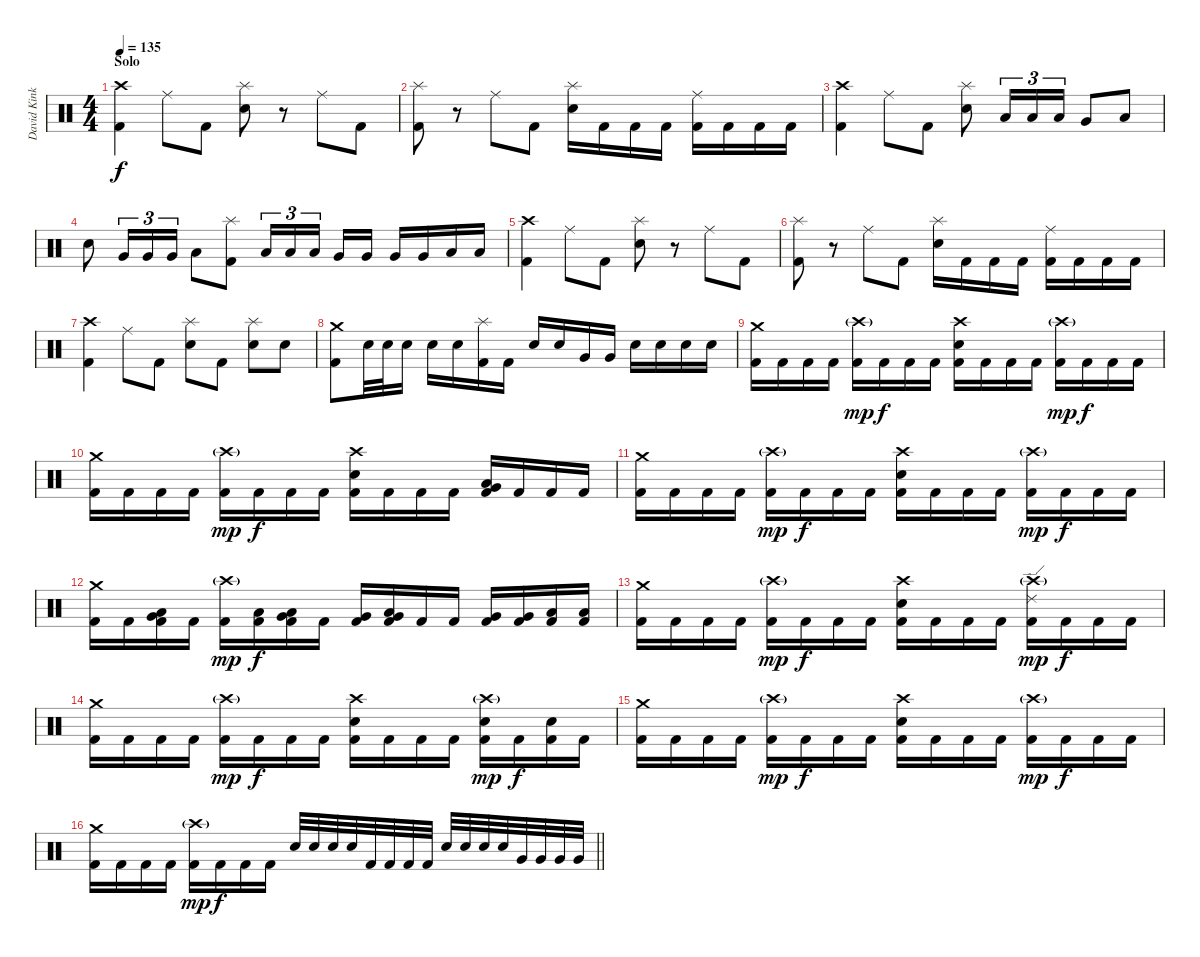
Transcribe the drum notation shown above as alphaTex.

\track ("David Kinkade" "David Kink") {instrument percussion}
\staff {score}
\articulation defaults
\ts (4 4)
\section ("" "Solo")
\tempo 135
\clef neutral
\ks c
("Crash high (hit)" "Kick (hit) 2").4{dy f} "Ride (middle)".8 "Kick (hit) 2".8 ("Splash (hit)" "Snare (hit) 2").8 r.8 "Ride (middle)".8 "Kick (hit) 2".8 |
("Splash (hit)" "Kick (hit) 2").8 r.8 "Ride (middle)".8 "Kick (hit) 2".8 ("Splash (hit)" "Snare (hit) 2").16 "Kick (hit) 2".16 "Kick (hit) 2".16 "Kick (hit) 2".16 ("Ride (middle)" "Kick (hit) 2").16 "Kick (hit) 2".16 "Kick (hit) 2".16 "Kick (hit) 2".16 |
("Crash high (hit)" "Kick (hit) 2").4 "Ride (middle)".8 "Kick (hit) 2".8 ("Splash (hit)" "Snare (hit) 2").8 "Low Tom (hit)".16{tu (3 2)} "Low Tom (hit)".16{tu (3 2)} "Low Tom (hit)".16{tu (3 2)} "Very Low Tom (hit)".8 "Low Floor Tom (hit)".8 |
"Snare (hit) 2".8 "Very Low Tom (hit)".16{tu (3 2)} "Very Low Tom (hit)".16{tu (3 2)} "Very Low Tom (hit)".16{tu (3 2)} "Low Floor Tom (hit)".8 ("Splash (hit)" "Kick (hit) 2").8 "Low Tom (hit)".16{tu (3 2)} "Low Tom (hit)".16{tu (3 2)} "Low Tom (hit)".16{tu (3 2) beam splitsecondary} "Very Low Tom (hit)".16 "Very Low Tom (hit)".16 "Very Low Tom (hit)".16 "Very Low Tom (hit)".16 "Low Floor Tom (hit)".16 "Low Floor Tom (hit)".16 |
("Crash high (hit)" "Kick (hit) 2").4 "Ride (middle)".8 "Kick (hit) 2".8 ("Splash (hit)" "Snare (hit) 2").8 r.8 "Ride (middle)".8 "Kick (hit) 2".8 |
("Splash (hit)" "Kick (hit) 2").8 r.8 "Ride (middle)".8 "Kick (hit) 2".8 ("Splash (hit)" "Snare (hit) 2").16 "Kick (hit) 2".16 "Kick (hit) 2".16 "Kick (hit) 2".16 ("Ride (middle)" "Kick (hit) 2").16 "Kick (hit) 2".16 "Kick (hit) 2".16 "Kick (hit) 2".16 |
("Crash high (hit)" "Kick (hit) 2").4 "Ride (middle)".8 "Kick (hit) 2".8 ("Splash (hit)" "Snare (hit) 2").8 "Kick (hit) 2".8 ("Splash (hit)" "Snare (hit) 2").8 "Snare (hit) 2".8 |
("Crash medium (hit)" "Kick (hit) 2").8 "Snare (hit) 2".32 "Snare (hit) 2".32 "Snare (hit) 2".16 "Snare (hit) 2".16 "Snare (hit) 2".16 ("Splash (hit)" "Kick (hit) 2").16 "Kick (hit) 2".16 "Snare (hit) 2".16 "Snare (hit) 2".16 "Very Low Tom (hit)".16 "Very Low Tom (hit)".16 "Snare (hit) 2".16 "Snare (hit) 2".16 "Snare (hit) 2".16 "Snare (hit) 2".16 |
("Crash medium (hit)" "Kick (hit) 2").16 "Kick (hit) 2".16 "Kick (hit) 2".16 "Kick (hit) 2".16 ("Crash high (hit)"{g} "Kick (hit) 2").16{dy mp} "Kick (hit) 2".16{dy f} "Kick (hit) 2".16 "Kick (hit) 2".16 ("Crash high (hit)" "Snare (hit) 2" "Kick (hit) 2").16 "Kick (hit) 2".16 "Kick (hit) 2".16 "Kick (hit) 2".16 ("Crash high (hit)"{g} "Kick (hit) 2").16{dy mp} "Kick (hit) 2".16{dy f} "Kick (hit) 2".16 "Kick (hit) 2".16 |
("Crash medium (hit)" "Kick (hit) 2").16 "Kick (hit) 2".16 "Kick (hit) 2".16 "Kick (hit) 2".16 ("Crash high (hit)"{g} "Kick (hit) 2").16{dy mp} "Kick (hit) 2".16{dy f} "Kick (hit) 2".16 "Kick (hit) 2".16 ("Crash high (hit)" "Snare (hit) 2" "Kick (hit) 2").16 "Kick (hit) 2".16 "Kick (hit) 2".16 "Kick (hit) 2".16 ("Very Low Tom (hit)" "Low Floor Tom (hit)" "Kick (hit) 2").16 "Kick (hit) 2".16 "Kick (hit) 2".16 "Kick (hit) 2".16 |
("Crash medium (hit)" "Kick (hit) 2").16 "Kick (hit) 2".16 "Kick (hit) 2".16 "Kick (hit) 2".16 ("Crash high (hit)"{g} "Kick (hit) 2").16{dy mp} "Kick (hit) 2".16{dy f} "Kick (hit) 2".16 "Kick (hit) 2".16 ("Crash high (hit)" "Snare (hit) 2" "Kick (hit) 2").16 "Kick (hit) 2".16 "Kick (hit) 2".16 "Kick (hit) 2".16 ("Crash high (hit)"{g} "Kick (hit) 2").16{dy mp} "Kick (hit) 2".16{dy f} "Kick (hit) 2".16 "Kick (hit) 2".16 |
("Crash medium (hit)" "Kick (hit) 2").16 "Kick (hit) 2".16 ("Low Tom (hit)" "Very Low Tom (hit)" "Kick (hit) 2").16 "Kick (hit) 2".16 ("Crash high (hit)"{g} "Kick (hit) 2").16{dy mp} ("Low Tom (hit)" "Kick (hit) 2").16{dy f} ("Very Low Tom (hit)" "Low Floor Tom (hit)" "Kick (hit) 2").16 "Kick (hit) 2".16 ("Very Low Tom (hit)" "Kick (hit) 2").16 ("Very Low Tom (hit)" "Low Floor Tom (hit)" "Kick (hit) 2").16 "Kick (hit) 2".16 "Kick (hit) 2".16 ("Very Low Tom (hit)" "Kick (hit) 2").16 ("Very Low Tom (hit)" "Kick (hit) 2").16 ("Low Floor Tom (hit)" "Kick (hit) 2").16 ("Low Floor Tom (hit)" "Kick (hit) 2").16 |
("Crash medium (hit)" "Kick (hit) 2").16 "Kick (hit) 2".16 "Kick (hit) 2".16 "Kick (hit) 2".16 ("Crash high (hit)"{g} "Kick (hit) 2").16{dy mp} "Kick (hit) 2".16{dy f} "Kick (hit) 2".16 "Kick (hit) 2".16 ("Crash high (hit)" "Snare (hit) 2" "Kick (hit) 2").16 "Kick (hit) 2".16 "Kick (hit) 2".16 "Kick (hit) 2".16 ("Crash high (hit)"{g} "Ride (edge) 2" "Kick (hit) 2").16{dy mp} "Kick (hit) 2".16{dy f} "Kick (hit) 2".16 "Kick (hit) 2".16 |
("Crash medium (hit)" "Kick (hit) 2").16 "Kick (hit) 2".16 "Kick (hit) 2".16 "Kick (hit) 2".16 ("Crash high (hit)"{g} "Kick (hit) 2").16{dy mp} "Kick (hit) 2".16{dy f} "Kick (hit) 2".16 "Kick (hit) 2".16 ("Crash high (hit)" "Snare (hit) 2" "Kick (hit) 2").16 "Kick (hit) 2".16 "Kick (hit) 2".16 "Kick (hit) 2".16 ("Crash high (hit)"{g} "Snare (hit) 2" "Kick (hit) 2").16{dy mp} "Kick (hit) 2".16{dy f} ("Snare (hit) 2" "Kick (hit) 2").16 "Kick (hit) 2".16 |
("Crash medium (hit)" "Kick (hit) 2").16 "Kick (hit) 2".16 "Kick (hit) 2".16 "Kick (hit) 2".16 ("Crash high (hit)"{g} "Kick (hit) 2").16{dy mp} "Kick (hit) 2".16{dy f} "Kick (hit) 2".16 "Kick (hit) 2".16 ("Crash high (hit)" "Snare (hit) 2" "Kick (hit) 2").16 "Kick (hit) 2".16 "Kick (hit) 2".16 "Kick (hit) 2".16 ("Crash high (hit)"{g} "Kick (hit) 2").16{dy mp} "Kick (hit) 2".16{dy f} "Kick (hit) 2".16 "Kick (hit) 2".16 |
\barLineRight lightlight
("Crash medium (hit)" "Kick (hit) 2").16 "Kick (hit) 2".16 "Kick (hit) 2".16 "Kick (hit) 2".16 ("Crash high (hit)"{g} "Kick (hit) 2").16{dy mp} "Kick (hit) 2".16{dy f} "Kick (hit) 2".16 "Kick (hit) 2".16 "Snare (hit) 2".32 "Snare (hit) 2".32 "Snare (hit) 2".32 "Snare (hit) 2".32 "Kick (hit) 2".32 "Kick (hit) 2".32 "Kick (hit) 2".32 "Kick (hit) 2".32 "Snare (hit) 2".32 "Snare (hit) 2".32 "Snare (hit) 2".32 "Snare (hit) 2".32 "Very Low Tom (hit)".32 "Very Low Tom (hit)".32 "Very Low Tom (hit)".32 "Very Low Tom (hit)".32
